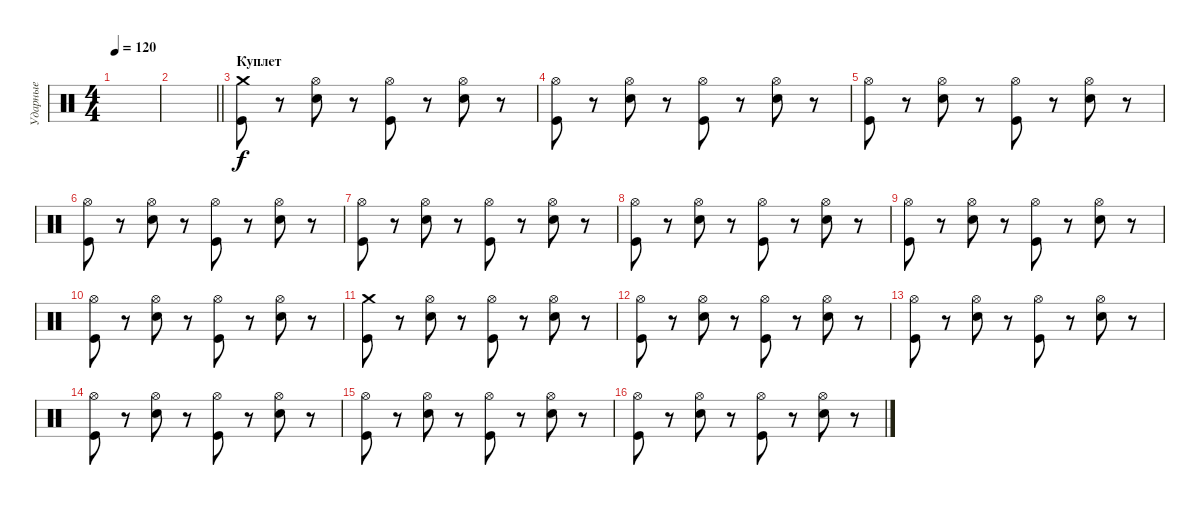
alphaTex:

\track ("Ударные" "Ударные") {instrument percussion}
\staff {score}
\articulation defaults
\ts (4 4)
\tempo 120
\clef neutral
\ks c
|
\barLineRight lightlight
|
\section ("" "Куплет")
("Crash medium (hit)" "Kick (hit)").8 r.8 ("Hi-Hat (open)" "Electric Snare (hit)").8 r.8 ("Hi-Hat (open)" "Kick (hit)").8 r.8 ("Hi-Hat (open)" "Electric Snare (hit)").8 r.8 |
("Hi-Hat (open)" "Kick (hit)").8 r.8 ("Hi-Hat (open)" "Electric Snare (hit)").8 r.8 ("Hi-Hat (open)" "Kick (hit)").8 r.8 ("Hi-Hat (open)" "Electric Snare (hit)").8 r.8 |
("Hi-Hat (open)" "Kick (hit)").8 r.8 ("Hi-Hat (open)" "Electric Snare (hit)").8 r.8 ("Hi-Hat (open)" "Kick (hit)").8 r.8 ("Hi-Hat (open)" "Electric Snare (hit)").8 r.8 |
("Hi-Hat (open)" "Kick (hit)").8 r.8 ("Hi-Hat (open)" "Electric Snare (hit)").8 r.8 ("Hi-Hat (open)" "Kick (hit)").8 r.8 ("Hi-Hat (open)" "Electric Snare (hit)").8 r.8 |
("Hi-Hat (open)" "Kick (hit)").8 r.8 ("Hi-Hat (open)" "Electric Snare (hit)").8 r.8 ("Hi-Hat (open)" "Kick (hit)").8 r.8 ("Hi-Hat (open)" "Electric Snare (hit)").8 r.8 |
("Hi-Hat (open)" "Kick (hit)").8 r.8 ("Hi-Hat (open)" "Electric Snare (hit)").8 r.8 ("Hi-Hat (open)" "Kick (hit)").8 r.8 ("Hi-Hat (open)" "Electric Snare (hit)").8 r.8 |
("Hi-Hat (open)" "Kick (hit)").8 r.8 ("Hi-Hat (open)" "Electric Snare (hit)").8 r.8 ("Hi-Hat (open)" "Kick (hit)").8 r.8 ("Hi-Hat (open)" "Electric Snare (hit)").8 r.8 |
("Hi-Hat (open)" "Kick (hit)").8 r.8 ("Hi-Hat (open)" "Electric Snare (hit)").8 r.8 ("Hi-Hat (open)" "Kick (hit)").8 r.8 ("Hi-Hat (open)" "Electric Snare (hit)").8 r.8 |
("Crash medium (hit)" "Kick (hit)").8 r.8 ("Hi-Hat (open)" "Electric Snare (hit)").8 r.8 ("Hi-Hat (open)" "Kick (hit)").8 r.8 ("Hi-Hat (open)" "Electric Snare (hit)").8 r.8 |
("Hi-Hat (open)" "Kick (hit)").8 r.8 ("Hi-Hat (open)" "Electric Snare (hit)").8 r.8 ("Hi-Hat (open)" "Kick (hit)").8 r.8 ("Hi-Hat (open)" "Electric Snare (hit)").8 r.8 |
("Hi-Hat (open)" "Kick (hit)").8 r.8 ("Hi-Hat (open)" "Electric Snare (hit)").8 r.8 ("Hi-Hat (open)" "Kick (hit)").8 r.8 ("Hi-Hat (open)" "Electric Snare (hit)").8 r.8 |
("Hi-Hat (open)" "Kick (hit)").8 r.8 ("Hi-Hat (open)" "Electric Snare (hit)").8 r.8 ("Hi-Hat (open)" "Kick (hit)").8 r.8 ("Hi-Hat (open)" "Electric Snare (hit)").8 r.8 |
("Hi-Hat (open)" "Kick (hit)").8 r.8 ("Hi-Hat (open)" "Electric Snare (hit)").8 r.8 ("Hi-Hat (open)" "Kick (hit)").8 r.8 ("Hi-Hat (open)" "Electric Snare (hit)").8 r.8 |
("Hi-Hat (open)" "Kick (hit)").8 r.8 ("Hi-Hat (open)" "Electric Snare (hit)").8 r.8 ("Hi-Hat (open)" "Kick (hit)").8 r.8 ("Hi-Hat (open)" "Electric Snare (hit)").8 r.8
